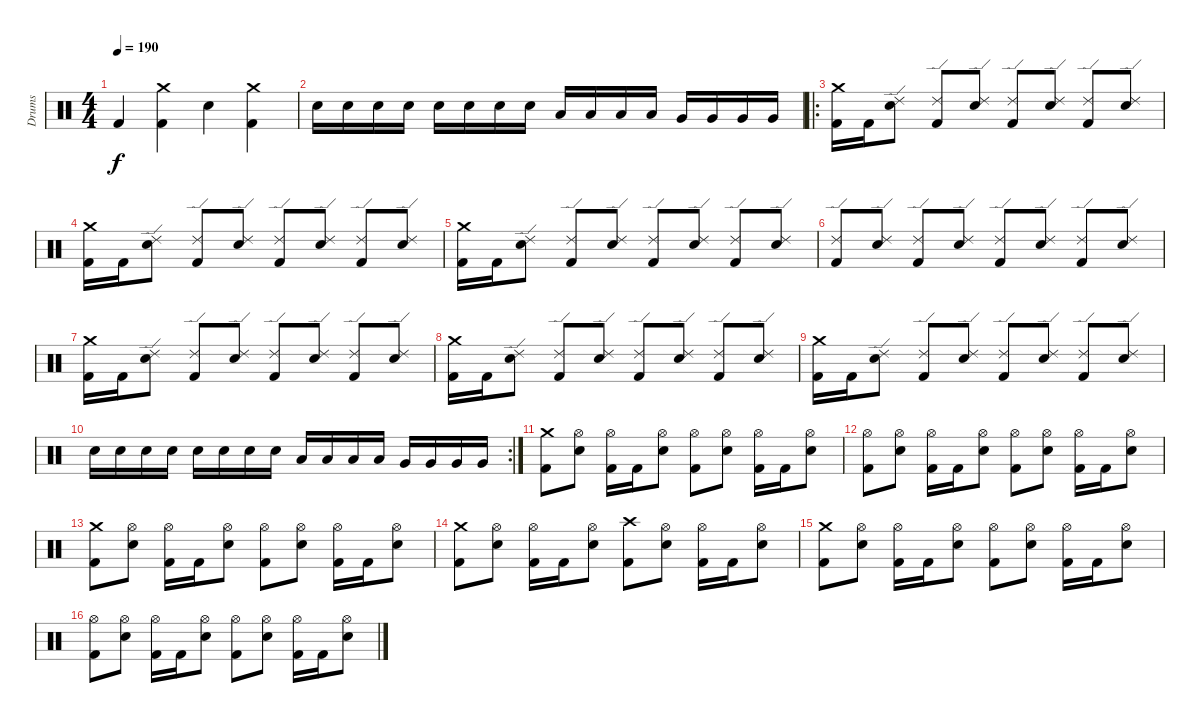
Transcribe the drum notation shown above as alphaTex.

\track ("Drums" "Drums") {instrument percussion}
\staff {score}
\articulation defaults
\ts (4 4)
\tempo 190
\clef neutral
\ks c "Kick (hit) 2".4{dy f}
("Crash medium (hit)" "Kick (hit) 2").4 "Electric Snare (hit)".4 ("Crash medium (hit)" "Kick (hit) 2").4 |
"Electric Snare (hit)".16 "Electric Snare (hit)".16 "Electric Snare (hit)".16 "Electric Snare (hit)".16 "Electric Snare (hit)".16 "Electric Snare (hit)".16 "Electric Snare (hit)".16 "Electric Snare (hit)".16 "Low Tom (hit)".16 "Low Tom (hit)".16 "Low Tom (hit)".16 "Low Tom (hit)".16 "Very Low Tom (hit)".16 "Very Low Tom (hit)".16 "Very Low Tom (hit)".16 "Very Low Tom (hit)".16 |
\ro
("Crash medium (hit)" "Kick (hit) 2").16 "Kick (hit) 2".16 ("Ride (edge) 2" "Electric Snare (hit)").8 ("Ride (edge) 2" "Kick (hit) 2").8 ("Ride (edge) 2" "Electric Snare (hit)").8 ("Ride (edge) 2" "Kick (hit) 2").8 ("Ride (edge) 2" "Electric Snare (hit)").8 ("Ride (edge) 2" "Kick (hit) 2").8 ("Ride (edge) 2" "Electric Snare (hit)").8 |
("Crash medium (hit)" "Kick (hit) 2").16 "Kick (hit) 2".16 ("Ride (edge) 2" "Electric Snare (hit)").8 ("Ride (edge) 2" "Kick (hit) 2").8 ("Ride (edge) 2" "Electric Snare (hit)").8 ("Ride (edge) 2" "Kick (hit) 2").8 ("Ride (edge) 2" "Electric Snare (hit)").8 ("Ride (edge) 2" "Kick (hit) 2").8 ("Ride (edge) 2" "Electric Snare (hit)").8 |
("Crash medium (hit)" "Kick (hit) 2").16 "Kick (hit) 2".16 ("Ride (edge) 2" "Electric Snare (hit)").8 ("Ride (edge) 2" "Kick (hit) 2").8 ("Ride (edge) 2" "Electric Snare (hit)").8 ("Ride (edge) 2" "Kick (hit) 2").8 ("Ride (edge) 2" "Electric Snare (hit)").8 ("Ride (edge) 2" "Kick (hit) 2").8 ("Ride (edge) 2" "Electric Snare (hit)").8 |
("Ride (edge) 2" "Kick (hit) 2").8 ("Ride (edge) 2" "Electric Snare (hit)").8 ("Ride (edge) 2" "Kick (hit) 2").8 ("Ride (edge) 2" "Electric Snare (hit)").8 ("Ride (edge) 2" "Kick (hit) 2").8 ("Ride (edge) 2" "Electric Snare (hit)").8 ("Ride (edge) 2" "Kick (hit) 2").8 ("Ride (edge) 2" "Electric Snare (hit)").8 |
("Crash medium (hit)" "Kick (hit) 2").16 "Kick (hit) 2".16 ("Ride (edge) 2" "Electric Snare (hit)").8 ("Ride (edge) 2" "Kick (hit) 2").8 ("Ride (edge) 2" "Electric Snare (hit)").8 ("Ride (edge) 2" "Kick (hit) 2").8 ("Ride (edge) 2" "Electric Snare (hit)").8 ("Ride (edge) 2" "Kick (hit) 2").8 ("Ride (edge) 2" "Electric Snare (hit)").8 |
("Crash medium (hit)" "Kick (hit) 2").16 "Kick (hit) 2".16 ("Ride (edge) 2" "Electric Snare (hit)").8 ("Ride (edge) 2" "Kick (hit) 2").8 ("Ride (edge) 2" "Electric Snare (hit)").8 ("Ride (edge) 2" "Kick (hit) 2").8 ("Ride (edge) 2" "Electric Snare (hit)").8 ("Ride (edge) 2" "Kick (hit) 2").8 ("Ride (edge) 2" "Electric Snare (hit)").8 |
("Crash medium (hit)" "Kick (hit) 2").16 "Kick (hit) 2".16 ("Ride (edge) 2" "Electric Snare (hit)").8 ("Ride (edge) 2" "Kick (hit) 2").8 ("Ride (edge) 2" "Electric Snare (hit)").8 ("Ride (edge) 2" "Kick (hit) 2").8 ("Ride (edge) 2" "Electric Snare (hit)").8 ("Ride (edge) 2" "Kick (hit) 2").8 ("Ride (edge) 2" "Electric Snare (hit)").8 |
\rc 2 "Electric Snare (hit)".16 "Electric Snare (hit)".16 "Electric Snare (hit)".16 "Electric Snare (hit)".16 "Electric Snare (hit)".16 "Electric Snare (hit)".16 "Electric Snare (hit)".16 "Electric Snare (hit)".16 "Low Tom (hit)".16 "Low Tom (hit)".16 "Low Tom (hit)".16 "Low Tom (hit)".16 "Very Low Tom (hit)".16 "Very Low Tom (hit)".16 "Very Low Tom (hit)".16 "Very Low Tom (hit)".16
|
("Crash medium (hit)" "Kick (hit) 2").8 ("Hi-Hat (open)" "Electric Snare (hit)").8 ("Hi-Hat (open)" "Kick (hit) 2").16 "Kick (hit) 2".16 ("Hi-Hat (open)" "Electric Snare (hit)").8 ("Hi-Hat (open)" "Kick (hit) 2").8 ("Hi-Hat (open)" "Electric Snare (hit)").8 ("Hi-Hat (open)" "Kick (hit) 2").16 "Kick (hit) 2".16 ("Hi-Hat (open)" "Electric Snare (hit)").8 |
("Hi-Hat (open)" "Kick (hit) 2").8 ("Hi-Hat (open)" "Electric Snare (hit)").8 ("Hi-Hat (open)" "Kick (hit) 2").16 "Kick (hit) 2".16 ("Hi-Hat (open)" "Electric Snare (hit)").8 ("Hi-Hat (open)" "Kick (hit) 2").8 ("Hi-Hat (open)" "Electric Snare (hit)").8 ("Hi-Hat (open)" "Kick (hit) 2").16 "Kick (hit) 2".16 ("Hi-Hat (open)" "Electric Snare (hit)").8 |
("Crash medium (hit)" "Kick (hit) 2").8 ("Hi-Hat (open)" "Electric Snare (hit)").8 ("Hi-Hat (open)" "Kick (hit) 2").16 "Kick (hit) 2".16 ("Hi-Hat (open)" "Electric Snare (hit)").8 ("Hi-Hat (open)" "Kick (hit) 2").8 ("Hi-Hat (open)" "Electric Snare (hit)").8 ("Hi-Hat (open)" "Kick (hit) 2").16 "Kick (hit) 2".16 ("Hi-Hat (open)" "Electric Snare (hit)").8 |
("Crash medium (hit)" "Kick (hit) 2").8 ("Hi-Hat (open)" "Electric Snare (hit)").8 ("Hi-Hat (open)" "Kick (hit) 2").16 "Kick (hit) 2".16 ("Hi-Hat (open)" "Electric Snare (hit)").8 ("Crash high (hit)" "Kick (hit) 2").8 ("Hi-Hat (open)" "Electric Snare (hit)").8 ("Hi-Hat (open)" "Kick (hit) 2").16 "Kick (hit) 2".16 ("Hi-Hat (open)" "Electric Snare (hit)").8 |
("Crash medium (hit)" "Kick (hit) 2").8 ("Hi-Hat (open)" "Electric Snare (hit)").8 ("Hi-Hat (open)" "Kick (hit) 2").16 "Kick (hit) 2".16 ("Hi-Hat (open)" "Electric Snare (hit)").8 ("Hi-Hat (open)" "Kick (hit) 2").8 ("Hi-Hat (open)" "Electric Snare (hit)").8 ("Hi-Hat (open)" "Kick (hit) 2").16 "Kick (hit) 2".16 ("Hi-Hat (open)" "Electric Snare (hit)").8 |
("Hi-Hat (open)" "Kick (hit) 2").8 ("Hi-Hat (open)" "Electric Snare (hit)").8 ("Hi-Hat (open)" "Kick (hit) 2").16 "Kick (hit) 2".16 ("Hi-Hat (open)" "Electric Snare (hit)").8 ("Hi-Hat (open)" "Kick (hit) 2").8 ("Hi-Hat (open)" "Electric Snare (hit)").8 ("Hi-Hat (open)" "Kick (hit) 2").16 "Kick (hit) 2".16 ("Hi-Hat (open)" "Electric Snare (hit)").8
